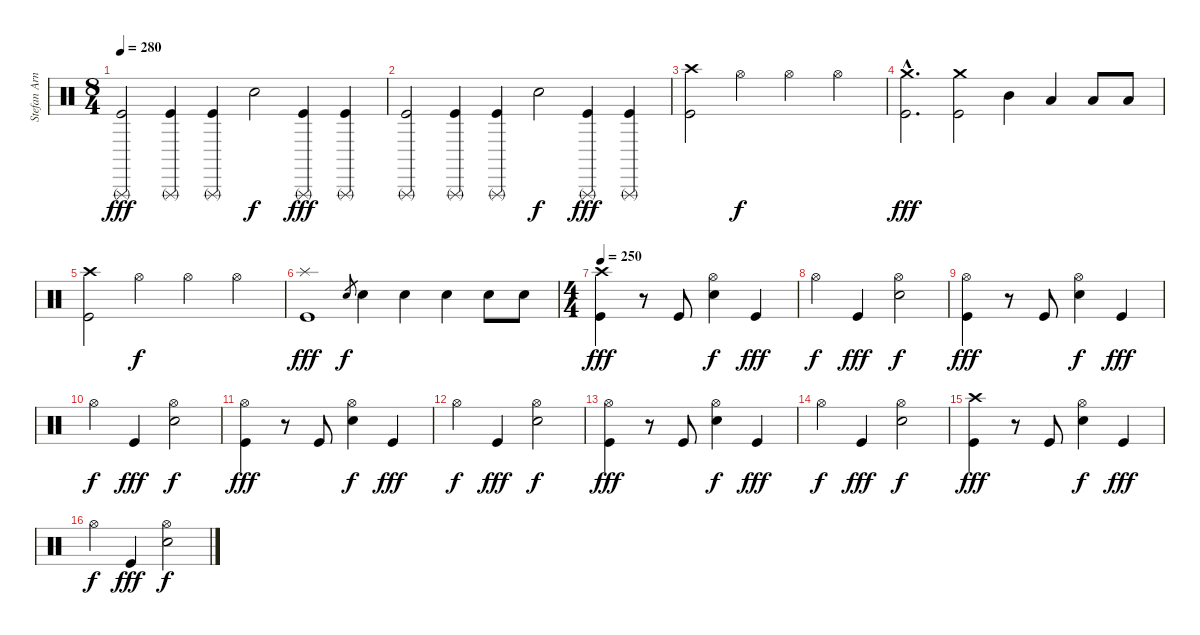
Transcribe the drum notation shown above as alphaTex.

\track ("Stefan Arnold (Batería)" "Stefan Arn") {instrument percussion}
\staff {score}
\articulation defaults
\ts (8 4)
\tempo 280
\clef neutral
\ks c
("Triangle (rnute)" "Kick (hit)").2{dy fff} ("Triangle (rnute)" "Kick (hit)").4 ("Triangle (rnute)" "Kick (hit)").4 "Electric Snare (hit)".2{dy f} ("Triangle (rnute)" "Kick (hit)").4{dy fff} ("Triangle (rnute)" "Kick (hit)").4 |
("Triangle (rnute)" "Kick (hit)").2 ("Triangle (rnute)" "Kick (hit)").4 ("Triangle (rnute)" "Kick (hit)").4 "Electric Snare (hit)".2{dy f} ("Triangle (rnute)" "Kick (hit)").4{dy fff} ("Triangle (rnute)" "Kick (hit)").4 |
("Crash high (hit)" "Kick (hit)").2 "Hi-Hat (open)".2{dy f} "Hi-Hat (open)".2 "Hi-Hat (open)".2 |
("Crash medium (hit)"{hac} "Kick (hit)"{hac}).2{d dy fff} ("Crash medium (hit)" "Kick (hit)").2 "Mid Tom (hit)".4 "Low Tom (hit)".4 "Low Tom (hit)".8 "Low Tom (hit)".8 |
("Crash high (hit)" "Kick (hit)").2 "Hi-Hat (open)".2{dy f} "Hi-Hat (open)".2 "Hi-Hat (open)".2 |
("Splash (hit)" "Kick (hit)").1{dy fff} "Electric Snare (hit)".8{gr dy f} "Electric Snare (hit)".4 "Electric Snare (hit)".4 "Electric Snare (hit)".4 "Electric Snare (hit)".8 "Electric Snare (hit)".8 |
\ts (4 4)
\tempo 250
("Crash high (hit)" "Kick (hit)").4{dy fff} r.8 "Kick (hit)".8 ("Hi-Hat (open)" "Electric Snare (hit)").4{dy f} "Kick (hit)".4{dy fff} |
"Hi-Hat (open)".4{dy f} "Kick (hit)".4{dy fff} ("Hi-Hat (open)" "Electric Snare (hit)").2{dy f} |
("Hi-Hat (open)" "Kick (hit)").4{dy fff} r.8 "Kick (hit)".8 ("Hi-Hat (open)" "Electric Snare (hit)").4{dy f} "Kick (hit)".4{dy fff} |
"Hi-Hat (open)".4{dy f} "Kick (hit)".4{dy fff} ("Hi-Hat (open)" "Electric Snare (hit)").2{dy f} |
("Hi-Hat (open)" "Kick (hit)").4{dy fff} r.8 "Kick (hit)".8 ("Hi-Hat (open)" "Electric Snare (hit)").4{dy f} "Kick (hit)".4{dy fff} |
"Hi-Hat (open)".4{dy f} "Kick (hit)".4{dy fff} ("Hi-Hat (open)" "Electric Snare (hit)").2{dy f} |
("Hi-Hat (open)" "Kick (hit)").4{dy fff} r.8 "Kick (hit)".8 ("Hi-Hat (open)" "Electric Snare (hit)").4{dy f} "Kick (hit)".4{dy fff} |
"Hi-Hat (open)".4{dy f} "Kick (hit)".4{dy fff} ("Hi-Hat (open)" "Electric Snare (hit)").2{dy f} |
("Crash high (hit)" "Kick (hit)").4{dy fff} r.8 "Kick (hit)".8 ("Hi-Hat (open)" "Electric Snare (hit)").4{dy f} "Kick (hit)".4{dy fff} |
"Hi-Hat (open)".4{dy f} "Kick (hit)".4{dy fff} ("Hi-Hat (open)" "Electric Snare (hit)").2{dy f}
